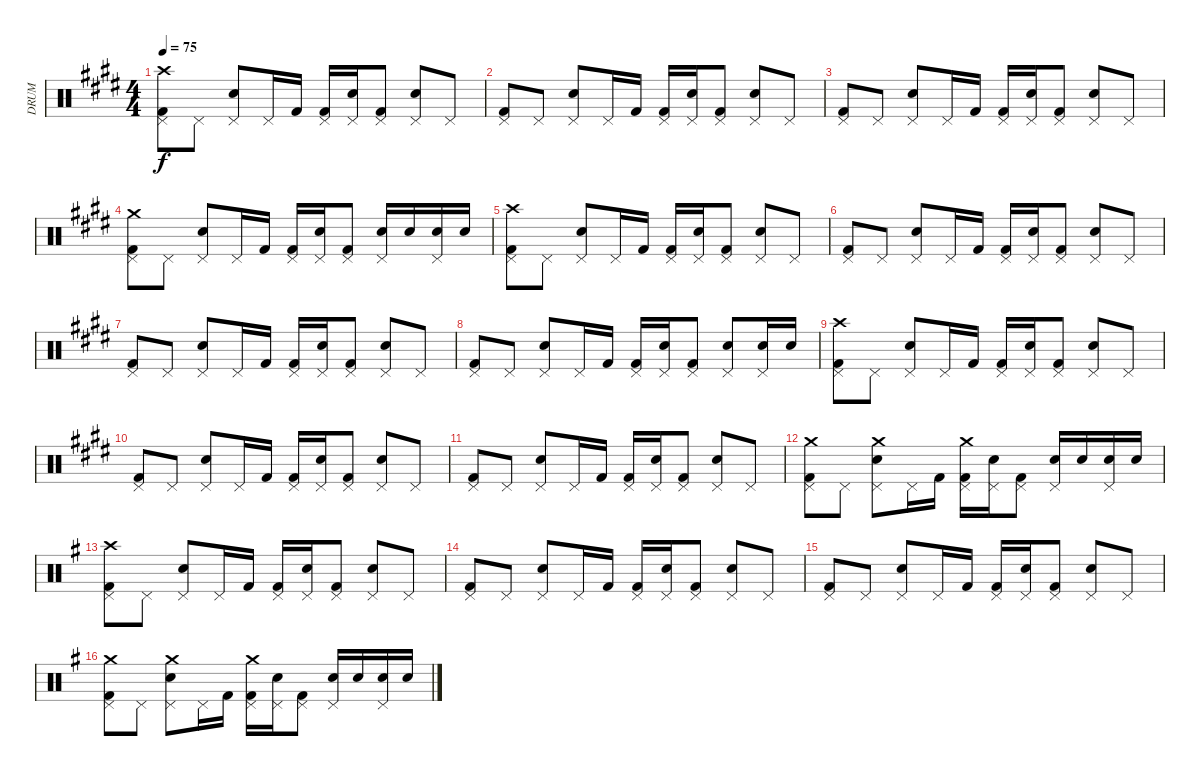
\track ("DRUM" "DRUM") {instrument percussion}
\staff {score}
\articulation defaults
\ts (4 4)
\tempo 75
\clef neutral
\ks e
("Crash high (hit)" "Pedal Hi-Hat (hit)" "Kick (hit) 2").8{dy f} "Pedal Hi-Hat (hit)".8 ("Pedal Hi-Hat (hit)" "Electric Snare (hit)").8 "Pedal Hi-Hat (hit)".16 "Kick (hit) 2".16 ("Pedal Hi-Hat (hit)" "Kick (hit) 2").16 ("Pedal Hi-Hat (hit)" "Electric Snare (hit)").16 ("Pedal Hi-Hat (hit)" "Kick (hit) 2").8 ("Pedal Hi-Hat (hit)" "Electric Snare (hit)").8 "Pedal Hi-Hat (hit)".8 |
("Pedal Hi-Hat (hit)" "Kick (hit) 2").8 "Pedal Hi-Hat (hit)".8 ("Pedal Hi-Hat (hit)" "Electric Snare (hit)").8 "Pedal Hi-Hat (hit)".16 "Kick (hit) 2".16 ("Pedal Hi-Hat (hit)" "Kick (hit) 2").16 ("Pedal Hi-Hat (hit)" "Electric Snare (hit)").16 ("Pedal Hi-Hat (hit)" "Kick (hit) 2").8 ("Pedal Hi-Hat (hit)" "Electric Snare (hit)").8 "Pedal Hi-Hat (hit)".8 |
("Pedal Hi-Hat (hit)" "Kick (hit) 2").8 "Pedal Hi-Hat (hit)".8 ("Pedal Hi-Hat (hit)" "Electric Snare (hit)").8 "Pedal Hi-Hat (hit)".16 "Kick (hit) 2".16 ("Pedal Hi-Hat (hit)" "Kick (hit) 2").16 ("Pedal Hi-Hat (hit)" "Electric Snare (hit)").16 ("Pedal Hi-Hat (hit)" "Kick (hit) 2").8 ("Pedal Hi-Hat (hit)" "Electric Snare (hit)").8 "Pedal Hi-Hat (hit)".8 |
("Crash medium (hit)" "Pedal Hi-Hat (hit)" "Kick (hit) 2").8 "Pedal Hi-Hat (hit)".8 ("Pedal Hi-Hat (hit)" "Electric Snare (hit)").8 "Pedal Hi-Hat (hit)".16 "Kick (hit) 2".16 ("Pedal Hi-Hat (hit)" "Kick (hit) 2").16 ("Pedal Hi-Hat (hit)" "Electric Snare (hit)").16 ("Pedal Hi-Hat (hit)" "Kick (hit) 2").8 ("Pedal Hi-Hat (hit)" "Electric Snare (hit)").16 "Electric Snare (hit)".16 ("Pedal Hi-Hat (hit)" "Electric Snare (hit)").16 "Electric Snare (hit)".16 |
("Crash high (hit)" "Pedal Hi-Hat (hit)" "Kick (hit) 2").8 "Pedal Hi-Hat (hit)".8 ("Pedal Hi-Hat (hit)" "Electric Snare (hit)").8 "Pedal Hi-Hat (hit)".16 "Kick (hit) 2".16 ("Pedal Hi-Hat (hit)" "Kick (hit) 2").16 ("Pedal Hi-Hat (hit)" "Electric Snare (hit)").16 ("Pedal Hi-Hat (hit)" "Kick (hit) 2").8 ("Pedal Hi-Hat (hit)" "Electric Snare (hit)").8 "Pedal Hi-Hat (hit)".8 |
("Pedal Hi-Hat (hit)" "Kick (hit) 2").8 "Pedal Hi-Hat (hit)".8 ("Pedal Hi-Hat (hit)" "Electric Snare (hit)").8 "Pedal Hi-Hat (hit)".16 "Kick (hit) 2".16 ("Pedal Hi-Hat (hit)" "Kick (hit) 2").16 ("Pedal Hi-Hat (hit)" "Electric Snare (hit)").16 ("Pedal Hi-Hat (hit)" "Kick (hit) 2").8 ("Pedal Hi-Hat (hit)" "Electric Snare (hit)").8 "Pedal Hi-Hat (hit)".8 |
("Pedal Hi-Hat (hit)" "Kick (hit) 2").8 "Pedal Hi-Hat (hit)".8 ("Pedal Hi-Hat (hit)" "Electric Snare (hit)").8 "Pedal Hi-Hat (hit)".16 "Kick (hit) 2".16 ("Pedal Hi-Hat (hit)" "Kick (hit) 2").16 ("Pedal Hi-Hat (hit)" "Electric Snare (hit)").16 ("Pedal Hi-Hat (hit)" "Kick (hit) 2").8 ("Pedal Hi-Hat (hit)" "Electric Snare (hit)").8 "Pedal Hi-Hat (hit)".8 |
("Pedal Hi-Hat (hit)" "Kick (hit) 2").8 "Pedal Hi-Hat (hit)".8 ("Pedal Hi-Hat (hit)" "Electric Snare (hit)").8 "Pedal Hi-Hat (hit)".16 "Kick (hit) 2".16 ("Pedal Hi-Hat (hit)" "Kick (hit) 2").16 ("Pedal Hi-Hat (hit)" "Electric Snare (hit)").16 ("Pedal Hi-Hat (hit)" "Kick (hit) 2").8 ("Pedal Hi-Hat (hit)" "Electric Snare (hit)").8 ("Pedal Hi-Hat (hit)" "Electric Snare (hit)").16 "Electric Snare (hit)".16 |
("Crash high (hit)" "Pedal Hi-Hat (hit)" "Kick (hit) 2").8 "Pedal Hi-Hat (hit)".8 ("Pedal Hi-Hat (hit)" "Electric Snare (hit)").8 "Pedal Hi-Hat (hit)".16 "Kick (hit) 2".16 ("Pedal Hi-Hat (hit)" "Kick (hit) 2").16 ("Pedal Hi-Hat (hit)" "Electric Snare (hit)").16 ("Pedal Hi-Hat (hit)" "Kick (hit) 2").8 ("Pedal Hi-Hat (hit)" "Electric Snare (hit)").8 "Pedal Hi-Hat (hit)".8 |
("Pedal Hi-Hat (hit)" "Kick (hit) 2").8 "Pedal Hi-Hat (hit)".8 ("Pedal Hi-Hat (hit)" "Electric Snare (hit)").8 "Pedal Hi-Hat (hit)".16 "Kick (hit) 2".16 ("Pedal Hi-Hat (hit)" "Kick (hit) 2").16 ("Pedal Hi-Hat (hit)" "Electric Snare (hit)").16 ("Pedal Hi-Hat (hit)" "Kick (hit) 2").8 ("Pedal Hi-Hat (hit)" "Electric Snare (hit)").8 "Pedal Hi-Hat (hit)".8 |
("Pedal Hi-Hat (hit)" "Kick (hit) 2").8 "Pedal Hi-Hat (hit)".8 ("Pedal Hi-Hat (hit)" "Electric Snare (hit)").8 "Pedal Hi-Hat (hit)".16 "Kick (hit) 2".16 ("Pedal Hi-Hat (hit)" "Kick (hit) 2").16 ("Pedal Hi-Hat (hit)" "Electric Snare (hit)").16 ("Pedal Hi-Hat (hit)" "Kick (hit) 2").8 ("Pedal Hi-Hat (hit)" "Electric Snare (hit)").8 "Pedal Hi-Hat (hit)".8 |
("Crash medium (hit)" "Pedal Hi-Hat (hit)" "Kick (hit) 2").8 "Pedal Hi-Hat (hit)".8 ("Crash medium (hit)" "Pedal Hi-Hat (hit)" "Electric Snare (hit)").8 "Pedal Hi-Hat (hit)".16 "Kick (hit) 2".16 ("Crash medium (hit)" "Pedal Hi-Hat (hit)" "Kick (hit) 2").16 ("Pedal Hi-Hat (hit)" "Electric Snare (hit)").16 ("Pedal Hi-Hat (hit)" "Kick (hit) 2").8 ("Pedal Hi-Hat (hit)" "Electric Snare (hit)").16 "Electric Snare (hit)".16 ("Pedal Hi-Hat (hit)" "Electric Snare (hit)").16 "Electric Snare (hit)".16 |
\ks g
("Crash high (hit)" "Pedal Hi-Hat (hit)" "Kick (hit) 2").8 "Pedal Hi-Hat (hit)".8 ("Pedal Hi-Hat (hit)" "Electric Snare (hit)").8 "Pedal Hi-Hat (hit)".16 "Kick (hit) 2".16 ("Pedal Hi-Hat (hit)" "Kick (hit) 2").16 ("Pedal Hi-Hat (hit)" "Electric Snare (hit)").16 ("Pedal Hi-Hat (hit)" "Kick (hit) 2").8 ("Pedal Hi-Hat (hit)" "Electric Snare (hit)").8 "Pedal Hi-Hat (hit)".8 |
("Pedal Hi-Hat (hit)" "Kick (hit) 2").8 "Pedal Hi-Hat (hit)".8 ("Pedal Hi-Hat (hit)" "Electric Snare (hit)").8 "Pedal Hi-Hat (hit)".16 "Kick (hit) 2".16 ("Pedal Hi-Hat (hit)" "Kick (hit) 2").16 ("Pedal Hi-Hat (hit)" "Electric Snare (hit)").16 ("Pedal Hi-Hat (hit)" "Kick (hit) 2").8 ("Pedal Hi-Hat (hit)" "Electric Snare (hit)").8 "Pedal Hi-Hat (hit)".8 |
("Pedal Hi-Hat (hit)" "Kick (hit) 2").8 "Pedal Hi-Hat (hit)".8 ("Pedal Hi-Hat (hit)" "Electric Snare (hit)").8 "Pedal Hi-Hat (hit)".16 "Kick (hit) 2".16 ("Pedal Hi-Hat (hit)" "Kick (hit) 2").16 ("Pedal Hi-Hat (hit)" "Electric Snare (hit)").16 ("Pedal Hi-Hat (hit)" "Kick (hit) 2").8 ("Pedal Hi-Hat (hit)" "Electric Snare (hit)").8 "Pedal Hi-Hat (hit)".8 |
("Crash medium (hit)" "Pedal Hi-Hat (hit)" "Kick (hit) 2").8 "Pedal Hi-Hat (hit)".8 ("Crash medium (hit)" "Pedal Hi-Hat (hit)" "Electric Snare (hit)").8 "Pedal Hi-Hat (hit)".16 "Kick (hit) 2".16 ("Crash medium (hit)" "Pedal Hi-Hat (hit)" "Kick (hit) 2").16 ("Pedal Hi-Hat (hit)" "Electric Snare (hit)").16 ("Pedal Hi-Hat (hit)" "Kick (hit) 2").8 ("Pedal Hi-Hat (hit)" "Electric Snare (hit)").16 "Electric Snare (hit)".16 ("Pedal Hi-Hat (hit)" "Electric Snare (hit)").16 "Electric Snare (hit)".16
